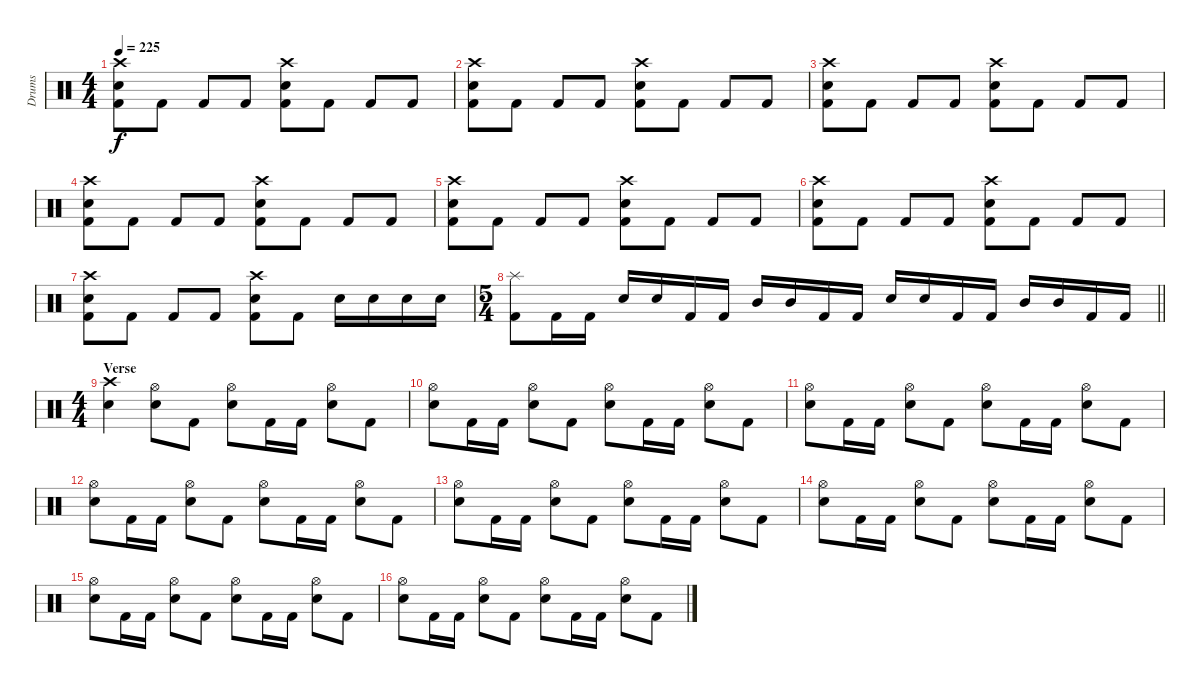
\track ("Drums" "Drums") {instrument percussion}
\staff {score}
\articulation defaults
\ts (4 4)
\tempo 225
\clef neutral
\ks c
("Crash high (hit)" "Electric Snare (hit)" "Kick (hit) 2").8{dy f} "Kick (hit) 2".8 "Kick (hit) 2".8 "Kick (hit) 2".8 ("Crash high (hit)" "Electric Snare (hit)" "Kick (hit) 2").8 "Kick (hit) 2".8 "Kick (hit) 2".8 "Kick (hit) 2".8 |
("Crash high (hit)" "Electric Snare (hit)" "Kick (hit) 2").8 "Kick (hit) 2".8 "Kick (hit) 2".8 "Kick (hit) 2".8 ("Crash high (hit)" "Electric Snare (hit)" "Kick (hit) 2").8 "Kick (hit) 2".8 "Kick (hit) 2".8 "Kick (hit) 2".8 |
("Crash high (hit)" "Electric Snare (hit)" "Kick (hit) 2").8 "Kick (hit) 2".8 "Kick (hit) 2".8 "Kick (hit) 2".8 ("Crash high (hit)" "Electric Snare (hit)" "Kick (hit) 2").8 "Kick (hit) 2".8 "Kick (hit) 2".8 "Kick (hit) 2".8 |
("Crash high (hit)" "Electric Snare (hit)" "Kick (hit) 2").8 "Kick (hit) 2".8 "Kick (hit) 2".8 "Kick (hit) 2".8 ("Crash high (hit)" "Electric Snare (hit)" "Kick (hit) 2").8 "Kick (hit) 2".8 "Kick (hit) 2".8 "Kick (hit) 2".8 |
("Crash high (hit)" "Electric Snare (hit)" "Kick (hit) 2").8 "Kick (hit) 2".8 "Kick (hit) 2".8 "Kick (hit) 2".8 ("Crash high (hit)" "Electric Snare (hit)" "Kick (hit) 2").8 "Kick (hit) 2".8 "Kick (hit) 2".8 "Kick (hit) 2".8 |
("Crash high (hit)" "Electric Snare (hit)" "Kick (hit) 2").8 "Kick (hit) 2".8 "Kick (hit) 2".8 "Kick (hit) 2".8 ("Crash high (hit)" "Electric Snare (hit)" "Kick (hit) 2").8 "Kick (hit) 2".8 "Kick (hit) 2".8 "Kick (hit) 2".8 |
("Crash high (hit)" "Electric Snare (hit)" "Kick (hit) 2").8 "Kick (hit) 2".8 "Kick (hit) 2".8 "Kick (hit) 2".8 ("Crash high (hit)" "Electric Snare (hit)" "Kick (hit) 2").8 "Kick (hit) 2".8 "Electric Snare (hit)".16 "Electric Snare (hit)".16 "Electric Snare (hit)".16 "Electric Snare (hit)".16 |
\ts (5 4)
\barLineRight lightlight
("Splash (hit)" "Kick (hit) 2").8 "Kick (hit) 2".16 "Kick (hit) 2".16 "Electric Snare (hit)".16 "Electric Snare (hit)".16 "Kick (hit) 2".16 "Kick (hit) 2".16 "Mid Tom (hit)".16 "Mid Tom (hit)".16 "Kick (hit) 2".16 "Kick (hit) 2".16 "Electric Snare (hit)".16 "Electric Snare (hit)".16 "Kick (hit) 2".16 "Kick (hit) 2".16 "Mid Tom (hit)".16 "Mid Tom (hit)".16 "Kick (hit) 2".16 "Kick (hit) 2".16 |
\ts (4 4)
\section ("" "Verse")
("Crash high (hit)" "Electric Snare (hit)").4 ("Hi-Hat (open)" "Electric Snare (hit)").8 "Kick (hit) 2".8 ("Hi-Hat (open)" "Electric Snare (hit)").8 "Kick (hit) 2".16 "Kick (hit) 2".16 ("Hi-Hat (open)" "Electric Snare (hit)").8 "Kick (hit) 2".8 |
("Hi-Hat (open)" "Electric Snare (hit)").8 "Kick (hit) 2".16 "Kick (hit) 2".16 ("Hi-Hat (open)" "Electric Snare (hit)").8 "Kick (hit) 2".8 ("Hi-Hat (open)" "Electric Snare (hit)").8 "Kick (hit) 2".16 "Kick (hit) 2".16 ("Hi-Hat (open)" "Electric Snare (hit)").8 "Kick (hit) 2".8 |
("Hi-Hat (open)" "Electric Snare (hit)").8 "Kick (hit) 2".16 "Kick (hit) 2".16 ("Hi-Hat (open)" "Electric Snare (hit)").8 "Kick (hit) 2".8 ("Hi-Hat (open)" "Electric Snare (hit)").8 "Kick (hit) 2".16 "Kick (hit) 2".16 ("Hi-Hat (open)" "Electric Snare (hit)").8 "Kick (hit) 2".8 |
("Hi-Hat (open)" "Electric Snare (hit)").8 "Kick (hit) 2".16 "Kick (hit) 2".16 ("Hi-Hat (open)" "Electric Snare (hit)").8 "Kick (hit) 2".8 ("Hi-Hat (open)" "Electric Snare (hit)").8 "Kick (hit) 2".16 "Kick (hit) 2".16 ("Hi-Hat (open)" "Electric Snare (hit)").8 "Kick (hit) 2".8 |
("Hi-Hat (open)" "Electric Snare (hit)").8 "Kick (hit) 2".16 "Kick (hit) 2".16 ("Hi-Hat (open)" "Electric Snare (hit)").8 "Kick (hit) 2".8 ("Hi-Hat (open)" "Electric Snare (hit)").8 "Kick (hit) 2".16 "Kick (hit) 2".16 ("Hi-Hat (open)" "Electric Snare (hit)").8 "Kick (hit) 2".8 |
("Hi-Hat (open)" "Electric Snare (hit)").8 "Kick (hit) 2".16 "Kick (hit) 2".16 ("Hi-Hat (open)" "Electric Snare (hit)").8 "Kick (hit) 2".8 ("Hi-Hat (open)" "Electric Snare (hit)").8 "Kick (hit) 2".16 "Kick (hit) 2".16 ("Hi-Hat (open)" "Electric Snare (hit)").8 "Kick (hit) 2".8 |
("Hi-Hat (open)" "Electric Snare (hit)").8 "Kick (hit) 2".16 "Kick (hit) 2".16 ("Hi-Hat (open)" "Electric Snare (hit)").8 "Kick (hit) 2".8 ("Hi-Hat (open)" "Electric Snare (hit)").8 "Kick (hit) 2".16 "Kick (hit) 2".16 ("Hi-Hat (open)" "Electric Snare (hit)").8 "Kick (hit) 2".8 |
("Hi-Hat (open)" "Electric Snare (hit)").8 "Kick (hit) 2".16 "Kick (hit) 2".16 ("Hi-Hat (open)" "Electric Snare (hit)").8 "Kick (hit) 2".8 ("Hi-Hat (open)" "Electric Snare (hit)").8 "Kick (hit) 2".16 "Kick (hit) 2".16 ("Hi-Hat (open)" "Electric Snare (hit)").8 "Kick (hit) 2".8
